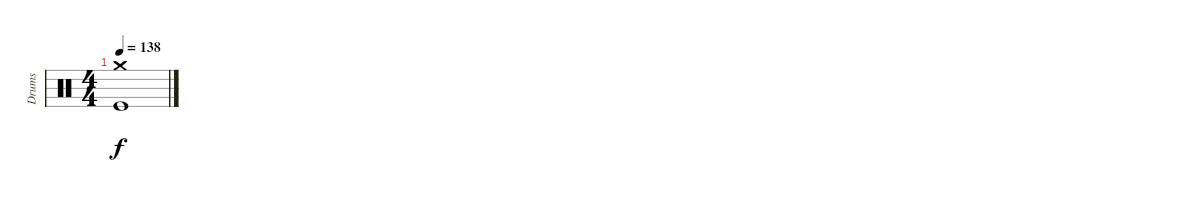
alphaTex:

\track ("Drums" "Drums") {instrument percussion}
\staff {score}
\articulation defaults
\ts (4 4)
\tempo 138
\clef neutral
\ks c
("Crash medium (hit)" "Kick (hit)").1{dy f}
